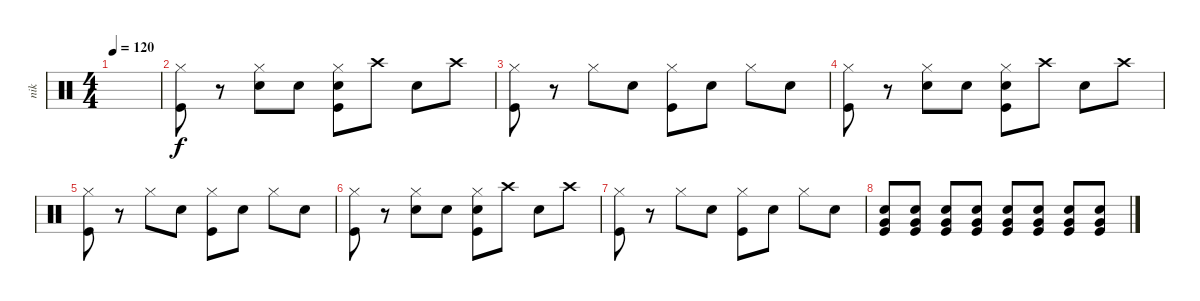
\track ("nik" "nik") {instrument percussion}
\staff {score}
\articulation defaults
\ts (4 4)
\tempo 120
\clef neutral
\ks c
|
("Hi-Hat (closed)" "Kick (hit)").8 r.8 ("Hi-Hat (closed)" "Electric Snare (hit)").8 "Electric Snare (hit)".8 ("Hi-Hat (closed)" "Electric Snare (hit)" "Kick (hit)").8 "Crash high (hit)".8 "Electric Snare (hit)".8 "Crash high (hit)".8 |
("Hi-Hat (closed)" "Kick (hit)").8 r.8 "Hi-Hat (closed)".8 "Electric Snare (hit)".8 ("Hi-Hat (closed)" "Kick (hit)").8 "Electric Snare (hit)".8 "Hi-Hat (closed)".8 "Electric Snare (hit)".8 |
("Hi-Hat (closed)" "Kick (hit)").8 r.8 ("Hi-Hat (closed)" "Electric Snare (hit)").8 "Electric Snare (hit)".8 ("Hi-Hat (closed)" "Electric Snare (hit)" "Kick (hit)").8 "Crash high (hit)".8 "Electric Snare (hit)".8 "Crash high (hit)".8 |
("Hi-Hat (closed)" "Kick (hit)").8 r.8 "Hi-Hat (closed)".8 "Electric Snare (hit)".8 ("Hi-Hat (closed)" "Kick (hit)").8 "Electric Snare (hit)".8 "Hi-Hat (closed)".8 "Electric Snare (hit)".8 |
("Hi-Hat (closed)" "Kick (hit)").8 r.8 ("Hi-Hat (closed)" "Electric Snare (hit)").8 "Electric Snare (hit)".8 ("Hi-Hat (closed)" "Electric Snare (hit)" "Kick (hit)").8 "Crash high (hit)".8 "Electric Snare (hit)".8 "Crash high (hit)".8 |
("Hi-Hat (closed)" "Kick (hit)").8 r.8 "Hi-Hat (closed)".8 "Electric Snare (hit)".8 ("Hi-Hat (closed)" "Kick (hit)").8 "Electric Snare (hit)".8 "Hi-Hat (closed)".8 "Electric Snare (hit)".8 |
("Very Low Tom (hit)" "Electric Snare (hit)" "Kick (hit)").8 ("Very Low Tom (hit)" "Electric Snare (hit)" "Kick (hit)").8 ("Very Low Tom (hit)" "Electric Snare (hit)" "Kick (hit)").8 ("Very Low Tom (hit)" "Electric Snare (hit)" "Kick (hit)").8 ("Very Low Tom (hit)" "Electric Snare (hit)" "Kick (hit)").8 ("Very Low Tom (hit)" "Electric Snare (hit)" "Kick (hit)").8 ("Very Low Tom (hit)" "Electric Snare (hit)" "Kick (hit)").8 ("Very Low Tom (hit)" "Electric Snare (hit)" "Kick (hit)").8
